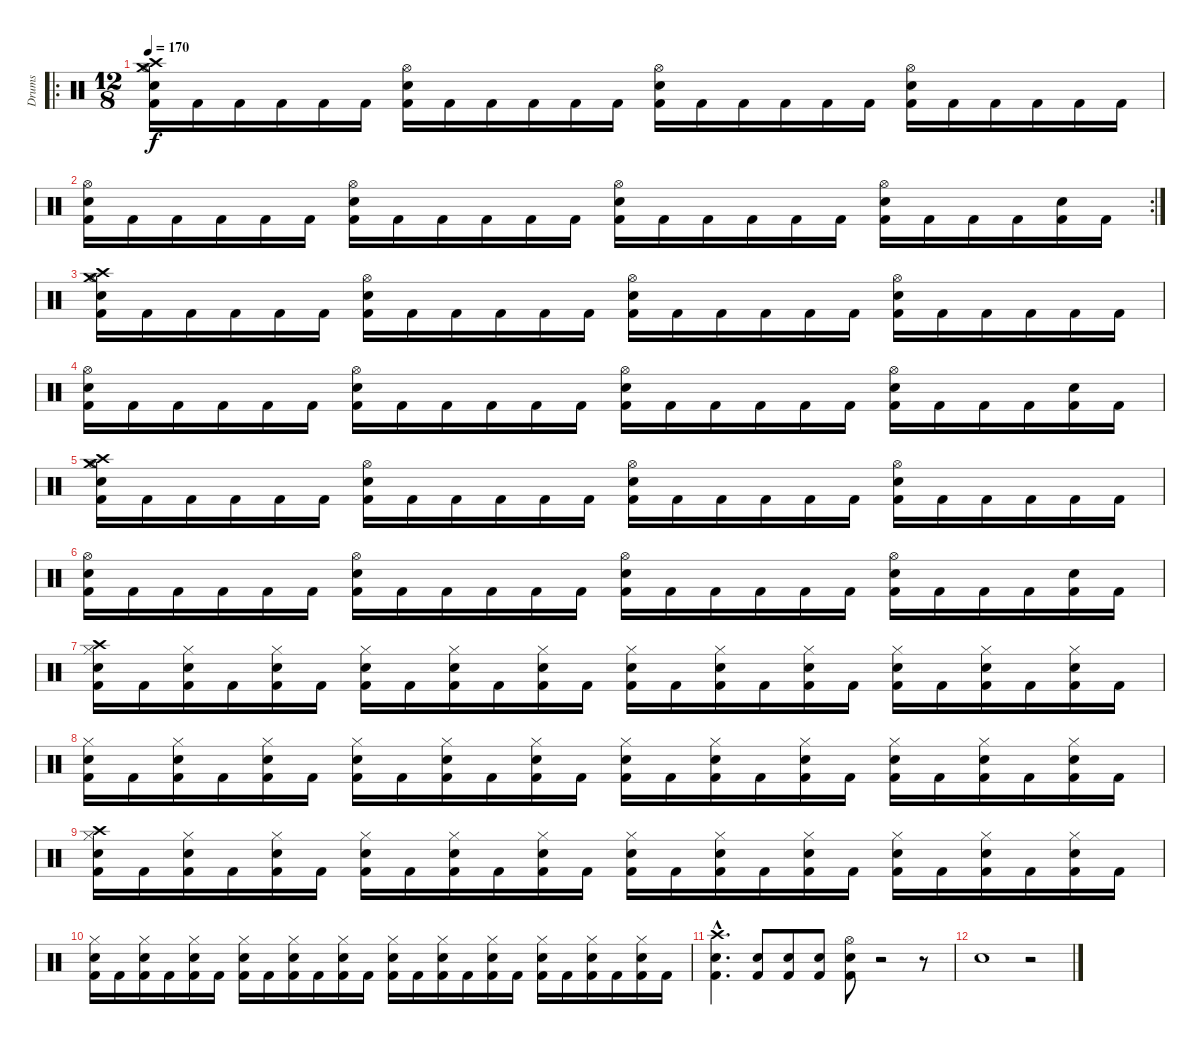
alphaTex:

\track ("Drums" "Drums") {instrument percussion}
\staff {score}
\articulation defaults
\ro
\ts (12 8)
\tempo 170
\clef neutral
\ks c
("Kick (hit) 2" "Electric Snare (hit)" "Crash medium (hit)" "Hi-Hat (open)" "Crash high (hit)").16{dy f} "Kick (hit) 2".16 "Kick (hit) 2".16 "Kick (hit) 2".16 "Kick (hit) 2".16 "Kick (hit) 2".16 ("Kick (hit) 2" "Electric Snare (hit)" "Hi-Hat (open)").16 "Kick (hit) 2".16 "Kick (hit) 2".16 "Kick (hit) 2".16 "Kick (hit) 2".16 "Kick (hit) 2".16 ("Kick (hit) 2" "Electric Snare (hit)" "Hi-Hat (open)").16 "Kick (hit) 2".16 "Kick (hit) 2".16 "Kick (hit) 2".16 "Kick (hit) 2".16 "Kick (hit) 2".16 ("Kick (hit) 2" "Electric Snare (hit)" "Hi-Hat (open)").16 "Kick (hit) 2".16 "Kick (hit) 2".16 "Kick (hit) 2".16 "Kick (hit) 2".16 "Kick (hit) 2".16 |
\rc 2
("Kick (hit) 2" "Electric Snare (hit)" "Hi-Hat (open)").16 "Kick (hit) 2".16 "Kick (hit) 2".16 "Kick (hit) 2".16 "Kick (hit) 2".16 "Kick (hit) 2".16 ("Kick (hit) 2" "Electric Snare (hit)" "Hi-Hat (open)").16 "Kick (hit) 2".16 "Kick (hit) 2".16 "Kick (hit) 2".16 "Kick (hit) 2".16 "Kick (hit) 2".16 ("Kick (hit) 2" "Electric Snare (hit)" "Hi-Hat (open)").16 "Kick (hit) 2".16 "Kick (hit) 2".16 "Kick (hit) 2".16 "Kick (hit) 2".16 "Kick (hit) 2".16 ("Kick (hit) 2" "Electric Snare (hit)" "Hi-Hat (open)").16 "Kick (hit) 2".16 "Kick (hit) 2".16 "Kick (hit) 2".16 ("Kick (hit) 2" "Electric Snare (hit)").16 "Kick (hit) 2".16 |
("Kick (hit) 2" "Electric Snare (hit)" "Crash medium (hit)" "Hi-Hat (open)" "Crash high (hit)").16 "Kick (hit) 2".16 "Kick (hit) 2".16 "Kick (hit) 2".16 "Kick (hit) 2".16 "Kick (hit) 2".16 ("Kick (hit) 2" "Electric Snare (hit)" "Hi-Hat (open)").16 "Kick (hit) 2".16 "Kick (hit) 2".16 "Kick (hit) 2".16 "Kick (hit) 2".16 "Kick (hit) 2".16 ("Kick (hit) 2" "Electric Snare (hit)" "Hi-Hat (open)").16 "Kick (hit) 2".16 "Kick (hit) 2".16 "Kick (hit) 2".16 "Kick (hit) 2".16 "Kick (hit) 2".16 ("Kick (hit) 2" "Electric Snare (hit)" "Hi-Hat (open)").16 "Kick (hit) 2".16 "Kick (hit) 2".16 "Kick (hit) 2".16 "Kick (hit) 2".16 "Kick (hit) 2".16 |
("Kick (hit) 2" "Electric Snare (hit)" "Hi-Hat (open)").16 "Kick (hit) 2".16 "Kick (hit) 2".16 "Kick (hit) 2".16 "Kick (hit) 2".16 "Kick (hit) 2".16 ("Kick (hit) 2" "Electric Snare (hit)" "Hi-Hat (open)").16 "Kick (hit) 2".16 "Kick (hit) 2".16 "Kick (hit) 2".16 "Kick (hit) 2".16 "Kick (hit) 2".16 ("Kick (hit) 2" "Electric Snare (hit)" "Hi-Hat (open)").16 "Kick (hit) 2".16 "Kick (hit) 2".16 "Kick (hit) 2".16 "Kick (hit) 2".16 "Kick (hit) 2".16 ("Kick (hit) 2" "Electric Snare (hit)" "Hi-Hat (open)").16 "Kick (hit) 2".16 "Kick (hit) 2".16 "Kick (hit) 2".16 ("Kick (hit) 2" "Electric Snare (hit)").16 "Kick (hit) 2".16 |
("Kick (hit) 2" "Electric Snare (hit)" "Crash medium (hit)" "Hi-Hat (open)" "Crash high (hit)").16 "Kick (hit) 2".16 "Kick (hit) 2".16 "Kick (hit) 2".16 "Kick (hit) 2".16 "Kick (hit) 2".16 ("Kick (hit) 2" "Electric Snare (hit)" "Hi-Hat (open)").16 "Kick (hit) 2".16 "Kick (hit) 2".16 "Kick (hit) 2".16 "Kick (hit) 2".16 "Kick (hit) 2".16 ("Kick (hit) 2" "Electric Snare (hit)" "Hi-Hat (open)").16 "Kick (hit) 2".16 "Kick (hit) 2".16 "Kick (hit) 2".16 "Kick (hit) 2".16 "Kick (hit) 2".16 ("Kick (hit) 2" "Electric Snare (hit)" "Hi-Hat (open)").16 "Kick (hit) 2".16 "Kick (hit) 2".16 "Kick (hit) 2".16 "Kick (hit) 2".16 "Kick (hit) 2".16 |
("Kick (hit) 2" "Electric Snare (hit)" "Hi-Hat (open)").16 "Kick (hit) 2".16 "Kick (hit) 2".16 "Kick (hit) 2".16 "Kick (hit) 2".16 "Kick (hit) 2".16 ("Kick (hit) 2" "Electric Snare (hit)" "Hi-Hat (open)").16 "Kick (hit) 2".16 "Kick (hit) 2".16 "Kick (hit) 2".16 "Kick (hit) 2".16 "Kick (hit) 2".16 ("Kick (hit) 2" "Electric Snare (hit)" "Hi-Hat (open)").16 "Kick (hit) 2".16 "Kick (hit) 2".16 "Kick (hit) 2".16 "Kick (hit) 2".16 "Kick (hit) 2".16 ("Kick (hit) 2" "Electric Snare (hit)" "Hi-Hat (open)").16 "Kick (hit) 2".16 "Kick (hit) 2".16 "Kick (hit) 2".16 ("Kick (hit) 2" "Electric Snare (hit)").16 "Kick (hit) 2".16 |
("Kick (hit) 2" "Electric Snare (hit)" "Hi-Hat (closed)" "Crash high (hit)").16 "Kick (hit) 2".16 ("Kick (hit) 2" "Electric Snare (hit)" "Hi-Hat (closed)").16 "Kick (hit) 2".16 ("Kick (hit) 2" "Electric Snare (hit)" "Hi-Hat (closed)").16 "Kick (hit) 2".16 ("Kick (hit) 2" "Electric Snare (hit)" "Hi-Hat (closed)").16 "Kick (hit) 2".16 ("Kick (hit) 2" "Electric Snare (hit)" "Hi-Hat (closed)").16 "Kick (hit) 2".16 ("Kick (hit) 2" "Electric Snare (hit)" "Hi-Hat (closed)").16 "Kick (hit) 2".16 ("Kick (hit) 2" "Electric Snare (hit)" "Hi-Hat (closed)").16 "Kick (hit) 2".16 ("Kick (hit) 2" "Electric Snare (hit)" "Hi-Hat (closed)").16 "Kick (hit) 2".16 ("Kick (hit) 2" "Electric Snare (hit)" "Hi-Hat (closed)").16 "Kick (hit) 2".16 ("Kick (hit) 2" "Electric Snare (hit)" "Hi-Hat (closed)").16 "Kick (hit) 2".16 ("Kick (hit) 2" "Electric Snare (hit)" "Hi-Hat (closed)").16 "Kick (hit) 2".16 ("Kick (hit) 2" "Electric Snare (hit)" "Hi-Hat (closed)").16 "Kick (hit) 2".16 |
("Kick (hit) 2" "Electric Snare (hit)" "Hi-Hat (closed)").16 "Kick (hit) 2".16 ("Kick (hit) 2" "Electric Snare (hit)" "Hi-Hat (closed)").16 "Kick (hit) 2".16 ("Kick (hit) 2" "Electric Snare (hit)" "Hi-Hat (closed)").16 "Kick (hit) 2".16 ("Kick (hit) 2" "Electric Snare (hit)" "Hi-Hat (closed)").16 "Kick (hit) 2".16 ("Kick (hit) 2" "Electric Snare (hit)" "Hi-Hat (closed)").16 "Kick (hit) 2".16 ("Kick (hit) 2" "Electric Snare (hit)" "Hi-Hat (closed)").16 "Kick (hit) 2".16 ("Kick (hit) 2" "Electric Snare (hit)" "Hi-Hat (closed)").16 "Kick (hit) 2".16 ("Kick (hit) 2" "Electric Snare (hit)" "Hi-Hat (closed)").16 "Kick (hit) 2".16 ("Kick (hit) 2" "Electric Snare (hit)" "Hi-Hat (closed)").16 "Kick (hit) 2".16 ("Kick (hit) 2" "Electric Snare (hit)" "Hi-Hat (closed)").16 "Kick (hit) 2".16 ("Kick (hit) 2" "Electric Snare (hit)" "Hi-Hat (closed)").16 "Kick (hit) 2".16 ("Kick (hit) 2" "Electric Snare (hit)" "Hi-Hat (closed)").16 "Kick (hit) 2".16 |
("Kick (hit) 2" "Electric Snare (hit)" "Hi-Hat (closed)" "Crash high (hit)").16 "Kick (hit) 2".16 ("Kick (hit) 2" "Electric Snare (hit)" "Hi-Hat (closed)").16 "Kick (hit) 2".16 ("Kick (hit) 2" "Electric Snare (hit)" "Hi-Hat (closed)").16 "Kick (hit) 2".16 ("Kick (hit) 2" "Electric Snare (hit)" "Hi-Hat (closed)").16 "Kick (hit) 2".16 ("Kick (hit) 2" "Electric Snare (hit)" "Hi-Hat (closed)").16 "Kick (hit) 2".16 ("Kick (hit) 2" "Electric Snare (hit)" "Hi-Hat (closed)").16 "Kick (hit) 2".16 ("Kick (hit) 2" "Electric Snare (hit)" "Hi-Hat (closed)").16 "Kick (hit) 2".16 ("Kick (hit) 2" "Electric Snare (hit)" "Hi-Hat (closed)").16 "Kick (hit) 2".16 ("Kick (hit) 2" "Electric Snare (hit)" "Hi-Hat (closed)").16 "Kick (hit) 2".16 ("Kick (hit) 2" "Electric Snare (hit)" "Hi-Hat (closed)").16 "Kick (hit) 2".16 ("Kick (hit) 2" "Electric Snare (hit)" "Hi-Hat (closed)").16 "Kick (hit) 2".16 ("Kick (hit) 2" "Electric Snare (hit)" "Hi-Hat (closed)").16 "Kick (hit) 2".16 |
("Kick (hit) 2" "Electric Snare (hit)" "Hi-Hat (closed)").16 "Kick (hit) 2".16 ("Kick (hit) 2" "Electric Snare (hit)" "Hi-Hat (closed)").16 "Kick (hit) 2".16 ("Kick (hit) 2" "Electric Snare (hit)" "Hi-Hat (closed)").16 "Kick (hit) 2".16 ("Kick (hit) 2" "Electric Snare (hit)" "Hi-Hat (closed)").16 "Kick (hit) 2".16 ("Kick (hit) 2" "Electric Snare (hit)" "Hi-Hat (closed)").16 "Kick (hit) 2".16 ("Kick (hit) 2" "Electric Snare (hit)" "Hi-Hat (closed)").16 "Kick (hit) 2".16 ("Kick (hit) 2" "Electric Snare (hit)" "Hi-Hat (closed)").16 "Kick (hit) 2".16 ("Kick (hit) 2" "Electric Snare (hit)" "Hi-Hat (closed)").16 "Kick (hit) 2".16 ("Kick (hit) 2" "Electric Snare (hit)" "Hi-Hat (closed)").16 "Kick (hit) 2".16 ("Kick (hit) 2" "Electric Snare (hit)" "Hi-Hat (closed)").16 "Kick (hit) 2".16 ("Kick (hit) 2" "Electric Snare (hit)" "Hi-Hat (closed)").16 "Kick (hit) 2".16 ("Kick (hit) 2" "Electric Snare (hit)" "Hi-Hat (closed)").16 "Kick (hit) 2".16 |
("Kick (hit) 2"{hac} "Electric Snare (hit)"{hac} "Crash high (hit)"{hac}).4{d} ("Kick (hit) 2" "Electric Snare (hit)").8 ("Kick (hit) 2" "Electric Snare (hit)").8 ("Kick (hit) 2" "Electric Snare (hit)").8 ("Kick (hit) 2" "Electric Snare (hit)" "Hi-Hat (open)").8 r.2 r.8 |
"Snare (hit)"{x}.1 r.2
